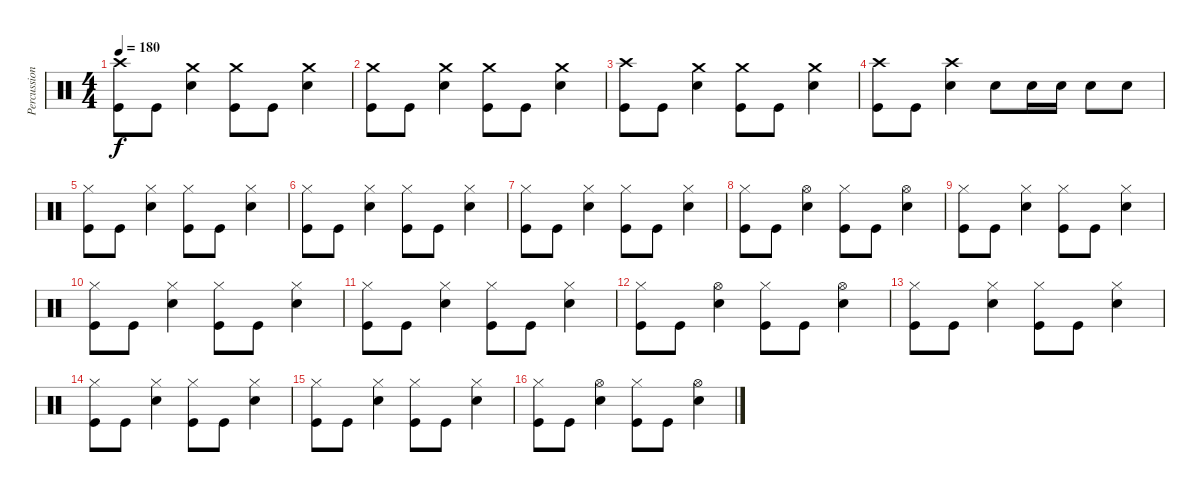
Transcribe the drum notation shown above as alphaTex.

\track ("Percussion" "Percussion") {instrument percussion}
\staff {score}
\articulation defaults
\ts (4 4)
\tempo 180
\clef neutral
\ks c
("Crash high (hit)" "Kick (hit)").8{dy f} "Kick (hit)".8 ("Crash medium (hit)" "Snare (hit) 2").4 ("Crash medium (hit)" "Kick (hit)").8 "Kick (hit)".8 ("Crash medium (hit)" "Snare (hit) 2").4 |
("Crash medium (hit)" "Kick (hit)").8 "Kick (hit)".8 ("Crash medium (hit)" "Snare (hit) 2").4 ("Crash medium (hit)" "Kick (hit)").8 "Kick (hit)".8 ("Crash medium (hit)" "Snare (hit) 2").4 |
("Crash high (hit)" "Kick (hit)").8 "Kick (hit)".8 ("Crash medium (hit)" "Snare (hit) 2").4 ("Crash medium (hit)" "Kick (hit)").8 "Kick (hit)".8 ("Crash medium (hit)" "Snare (hit) 2").4 |
("Crash high (hit)" "Kick (hit)").8 "Kick (hit)".8 ("Crash high (hit)" "Snare (hit) 2").4 "Snare (hit) 2".8 "Snare (hit) 2".16 "Snare (hit) 2".16 "Snare (hit) 2".8 "Snare (hit) 2".8 |
("Hi-Hat (closed)" "Kick (hit)").8 "Kick (hit)".8 ("Hi-Hat (closed)" "Snare (hit) 2").4 ("Hi-Hat (closed)" "Kick (hit)").8 "Kick (hit)".8 ("Hi-Hat (closed)" "Snare (hit) 2").4 |
("Hi-Hat (closed)" "Kick (hit)").8 "Kick (hit)".8 ("Hi-Hat (closed)" "Snare (hit) 2").4 ("Hi-Hat (closed)" "Kick (hit)").8 "Kick (hit)".8 ("Hi-Hat (closed)" "Snare (hit) 2").4 |
("Hi-Hat (closed)" "Kick (hit)").8 "Kick (hit)".8 ("Hi-Hat (closed)" "Snare (hit) 2").4 ("Hi-Hat (closed)" "Kick (hit)").8 "Kick (hit)".8 ("Hi-Hat (closed)" "Snare (hit) 2").4 |
("Hi-Hat (closed)" "Kick (hit)").8 "Kick (hit)".8 ("Hi-Hat (open)" "Snare (hit) 2").4 ("Hi-Hat (closed)" "Kick (hit)").8 "Kick (hit)".8 ("Hi-Hat (open)" "Snare (hit) 2").4 |
("Hi-Hat (closed)" "Kick (hit)").8 "Kick (hit)".8 ("Hi-Hat (closed)" "Snare (hit) 2").4 ("Hi-Hat (closed)" "Kick (hit)").8 "Kick (hit)".8 ("Hi-Hat (closed)" "Snare (hit) 2").4 |
("Hi-Hat (closed)" "Kick (hit)").8 "Kick (hit)".8 ("Hi-Hat (closed)" "Snare (hit) 2").4 ("Hi-Hat (closed)" "Kick (hit)").8 "Kick (hit)".8 ("Hi-Hat (closed)" "Snare (hit) 2").4 |
("Hi-Hat (closed)" "Kick (hit)").8 "Kick (hit)".8 ("Hi-Hat (closed)" "Snare (hit) 2").4 ("Hi-Hat (closed)" "Kick (hit)").8 "Kick (hit)".8 ("Hi-Hat (closed)" "Snare (hit) 2").4 |
("Hi-Hat (closed)" "Kick (hit)").8 "Kick (hit)".8 ("Hi-Hat (open)" "Snare (hit) 2").4 ("Hi-Hat (closed)" "Kick (hit)").8 "Kick (hit)".8 ("Hi-Hat (open)" "Snare (hit) 2").4 |
("Hi-Hat (closed)" "Kick (hit)").8 "Kick (hit)".8 ("Hi-Hat (closed)" "Snare (hit) 2").4 ("Hi-Hat (closed)" "Kick (hit)").8 "Kick (hit)".8 ("Hi-Hat (closed)" "Snare (hit) 2").4 |
("Hi-Hat (closed)" "Kick (hit)").8 "Kick (hit)".8 ("Hi-Hat (closed)" "Snare (hit) 2").4 ("Hi-Hat (closed)" "Kick (hit)").8 "Kick (hit)".8 ("Hi-Hat (closed)" "Snare (hit) 2").4 |
("Hi-Hat (closed)" "Kick (hit)").8 "Kick (hit)".8 ("Hi-Hat (closed)" "Snare (hit) 2").4 ("Hi-Hat (closed)" "Kick (hit)").8 "Kick (hit)".8 ("Hi-Hat (closed)" "Snare (hit) 2").4 |
("Hi-Hat (closed)" "Kick (hit)").8 "Kick (hit)".8 ("Hi-Hat (open)" "Snare (hit) 2").4 ("Hi-Hat (closed)" "Kick (hit)").8 "Kick (hit)".8 ("Hi-Hat (open)" "Snare (hit) 2").4
